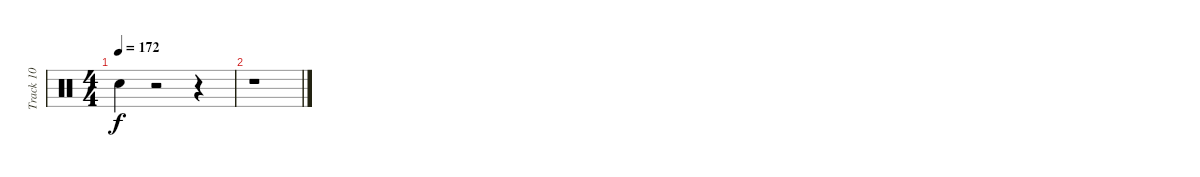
\track ("Track 10" "Track 10") {instrument percussion}
\staff {score}
\articulation defaults
\ts (4 4)
\tempo 172
\clef neutral
\ks c "Snare (hit)"{t}.4{dy f}
r.2 r.4 |
r.1
